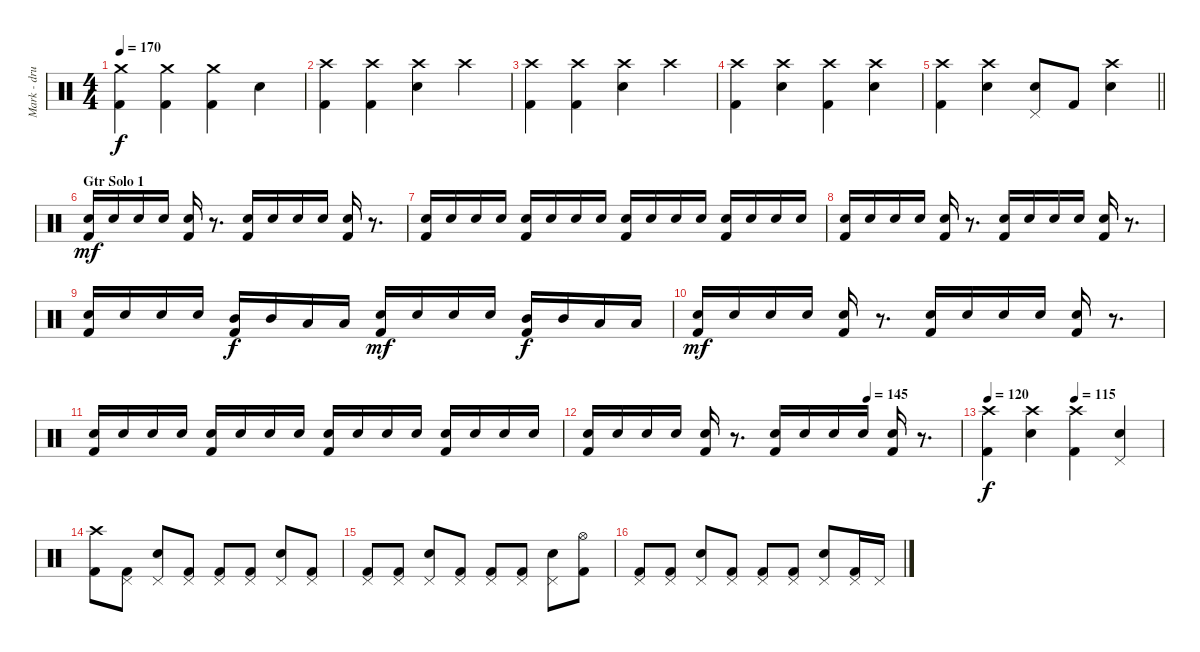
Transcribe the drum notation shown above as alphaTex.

\track ("Mark - drums" "Mark - dru") {instrument percussion}
\staff {score}
\articulation defaults
\ts (4 4)
\tempo 170
\clef neutral
\ks c
("Kick (hit) 2" "Crash medium (hit)").4{dy f} ("Kick (hit) 2" "Crash medium (hit)").4 ("Kick (hit) 2" "Crash medium (hit)").4 "Electric Snare (hit)".4 |
("Kick (hit) 2" "Crash high (hit)").4 ("Kick (hit) 2" "Crash high (hit)").4 ("Electric Snare (hit)" "Crash high (hit)").4 "Crash high (hit)".4 |
("Kick (hit) 2" "Crash high (hit)").4 ("Kick (hit) 2" "Crash high (hit)").4 ("Electric Snare (hit)" "Crash high (hit)").4 "Crash high (hit)".4 |
("Kick (hit) 2" "Crash high (hit)").4 ("Electric Snare (hit)" "Crash high (hit)").4 ("Kick (hit) 2" "Crash high (hit)").4 ("Electric Snare (hit)" "Crash high (hit)").4 |
\barLineRight lightlight
("Kick (hit) 2" "Crash high (hit)").4 ("Electric Snare (hit)" "Crash high (hit)").4 ("Electric Snare (hit)" "Pedal Hi-Hat (hit)").8 "Kick (hit) 2".8 ("Electric Snare (hit)" "Crash high (hit)").4 |
\section ("" "Gtr Solo 1")
("Kick (hit) 2" "Electric Snare (hit)").16{dy mf} "Electric Snare (hit)".16 "Electric Snare (hit)".16 "Electric Snare (hit)".16 ("Kick (hit) 2" "Electric Snare (hit)").16 r.8{d} ("Kick (hit) 2" "Electric Snare (hit)").16 "Electric Snare (hit)".16 "Electric Snare (hit)".16 "Electric Snare (hit)".16 ("Kick (hit) 2" "Electric Snare (hit)").16 r.8{d} |
("Kick (hit) 2" "Electric Snare (hit)").16 "Electric Snare (hit)".16 "Electric Snare (hit)".16 "Electric Snare (hit)".16 ("Kick (hit) 2" "Electric Snare (hit)").16 "Electric Snare (hit)".16 "Electric Snare (hit)".16 "Electric Snare (hit)".16 ("Kick (hit) 2" "Electric Snare (hit)").16 "Electric Snare (hit)".16 "Electric Snare (hit)".16 "Electric Snare (hit)".16 ("Kick (hit) 2" "Electric Snare (hit)").16 "Electric Snare (hit)".16 "Electric Snare (hit)".16 "Electric Snare (hit)".16 |
("Kick (hit) 2" "Electric Snare (hit)").16 "Electric Snare (hit)".16 "Electric Snare (hit)".16 "Electric Snare (hit)".16 ("Kick (hit) 2" "Electric Snare (hit)").16 r.8{d} ("Kick (hit) 2" "Electric Snare (hit)").16 "Electric Snare (hit)".16 "Electric Snare (hit)".16 "Electric Snare (hit)".16 ("Kick (hit) 2" "Electric Snare (hit)").16 r.8{d} |
("Kick (hit) 2" "Electric Snare (hit)").16 "Electric Snare (hit)".16 "Electric Snare (hit)".16 "Electric Snare (hit)".16 ("Kick (hit) 2" "Mid Tom (hit)").16{dy f} "Mid Tom (hit)".16 "Low Tom (hit)".16 "Low Tom (hit)".16 ("Kick (hit) 2" "Electric Snare (hit)").16{dy mf} "Electric Snare (hit)".16 "Electric Snare (hit)".16 "Electric Snare (hit)".16 ("Kick (hit) 2" "Mid Tom (hit)").16{dy f} "Mid Tom (hit)".16 "Low Tom (hit)".16 "Low Tom (hit)".16 |
("Kick (hit) 2" "Electric Snare (hit)").16{dy mf} "Electric Snare (hit)".16 "Electric Snare (hit)".16 "Electric Snare (hit)".16 ("Kick (hit) 2" "Electric Snare (hit)").16 r.8{d} ("Kick (hit) 2" "Electric Snare (hit)").16 "Electric Snare (hit)".16 "Electric Snare (hit)".16 "Electric Snare (hit)".16 ("Kick (hit) 2" "Electric Snare (hit)").16 r.8{d} |
("Kick (hit) 2" "Electric Snare (hit)").16 "Electric Snare (hit)".16 "Electric Snare (hit)".16 "Electric Snare (hit)".16 ("Kick (hit) 2" "Electric Snare (hit)").16 "Electric Snare (hit)".16 "Electric Snare (hit)".16 "Electric Snare (hit)".16 ("Kick (hit) 2" "Electric Snare (hit)").16 "Electric Snare (hit)".16 "Electric Snare (hit)".16 "Electric Snare (hit)".16 ("Kick (hit) 2" "Electric Snare (hit)").16 "Electric Snare (hit)".16 "Electric Snare (hit)".16 "Electric Snare (hit)".16 |
\tempo (145 0.75)
("Kick (hit) 2" "Electric Snare (hit)").16 "Electric Snare (hit)".16 "Electric Snare (hit)".16 "Electric Snare (hit)".16 ("Kick (hit) 2" "Electric Snare (hit)").16 r.8{d} ("Kick (hit) 2" "Electric Snare (hit)").16 "Electric Snare (hit)".16 "Electric Snare (hit)".16 "Electric Snare (hit)".16 ("Kick (hit) 2" "Electric Snare (hit)").16 r.8{d} |
\tempo 120
\tempo (115 0.5)
("Kick (hit) 2" "Crash high (hit)").4{dy f} ("Electric Snare (hit)" "Crash high (hit)").4 ("Kick (hit) 2" "Crash high (hit)").4 ("Electric Snare (hit)" "Pedal Hi-Hat (hit)").4 |
("Kick (hit) 2" "Crash high (hit)").8 ("Kick (hit) 2" "Pedal Hi-Hat (hit)").8 ("Electric Snare (hit)" "Pedal Hi-Hat (hit)").8 ("Kick (hit) 2" "Pedal Hi-Hat (hit)").8 ("Kick (hit) 2" "Pedal Hi-Hat (hit)").8 ("Kick (hit) 2" "Pedal Hi-Hat (hit)").8 ("Electric Snare (hit)" "Pedal Hi-Hat (hit)").8 ("Kick (hit) 2" "Pedal Hi-Hat (hit)").8 |
("Kick (hit) 2" "Pedal Hi-Hat (hit)").8 ("Kick (hit) 2" "Pedal Hi-Hat (hit)").8 ("Electric Snare (hit)" "Pedal Hi-Hat (hit)").8 ("Kick (hit) 2" "Pedal Hi-Hat (hit)").8 ("Kick (hit) 2" "Pedal Hi-Hat (hit)").8 ("Kick (hit) 2" "Pedal Hi-Hat (hit)").8 ("Electric Snare (hit)" "Pedal Hi-Hat (hit)").8 ("Kick (hit) 2" "Hi-Hat (open)").8 |
("Kick (hit) 2" "Pedal Hi-Hat (hit)").8 ("Kick (hit) 2" "Pedal Hi-Hat (hit)").8 ("Electric Snare (hit)" "Pedal Hi-Hat (hit)").8 ("Kick (hit) 2" "Pedal Hi-Hat (hit)").8 ("Kick (hit) 2" "Pedal Hi-Hat (hit)").8 ("Kick (hit) 2" "Pedal Hi-Hat (hit)").8 ("Electric Snare (hit)" "Pedal Hi-Hat (hit)").8 ("Kick (hit) 2" "Pedal Hi-Hat (hit)").16 "Pedal Hi-Hat (hit)".16
